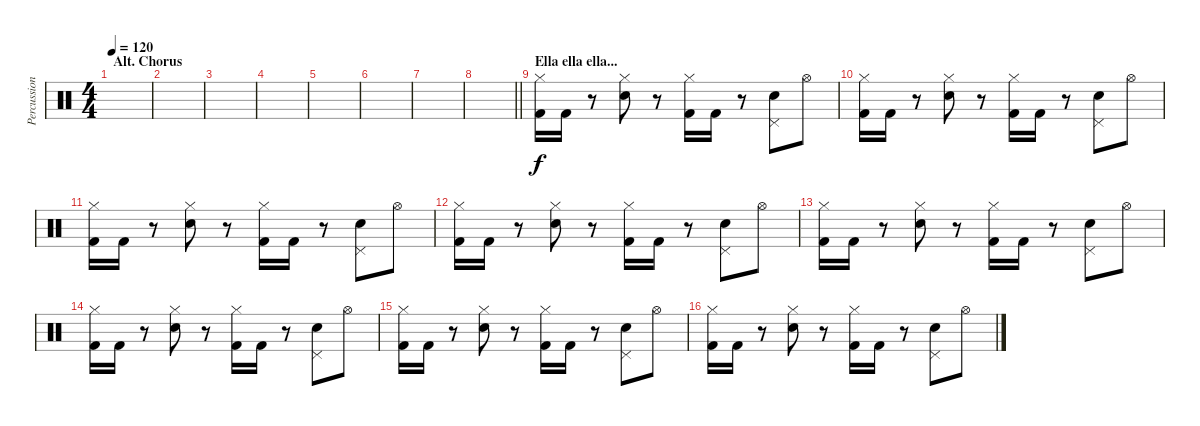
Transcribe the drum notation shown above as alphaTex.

\track ("Percussion" "Percussion") {instrument percussion}
\staff {score}
\articulation defaults
\ts (4 4)
\section ("" "Alt. Chorus")
\tempo 120
\clef neutral
\ks c
|
|
|
|
|
|
|
\barLineRight lightlight
|
\section ("" "Ella ella ella...")
("Hi-Hat (closed)" "Kick (hit) 2").16 "Kick (hit) 2".16 r.8 ("Hi-Hat (closed)" "Electric Snare (hit)").8 r.8 ("Hi-Hat (closed)" "Kick (hit) 2").16 "Kick (hit) 2".16 r.8 ("Pedal Hi-Hat (hit)" "Electric Snare (hit)").8 "Hi-Hat (open)".8 |
("Hi-Hat (closed)" "Kick (hit) 2").16 "Kick (hit) 2".16 r.8 ("Hi-Hat (closed)" "Electric Snare (hit)").8 r.8 ("Hi-Hat (closed)" "Kick (hit) 2").16 "Kick (hit) 2".16 r.8 ("Pedal Hi-Hat (hit)" "Electric Snare (hit)").8 "Hi-Hat (open)".8 |
("Hi-Hat (closed)" "Kick (hit) 2").16 "Kick (hit) 2".16 r.8 ("Hi-Hat (closed)" "Electric Snare (hit)").8 r.8 ("Hi-Hat (closed)" "Kick (hit) 2").16 "Kick (hit) 2".16 r.8 ("Pedal Hi-Hat (hit)" "Electric Snare (hit)").8 "Hi-Hat (open)".8 |
("Hi-Hat (closed)" "Kick (hit) 2").16 "Kick (hit) 2".16 r.8 ("Hi-Hat (closed)" "Electric Snare (hit)").8 r.8 ("Hi-Hat (closed)" "Kick (hit) 2").16 "Kick (hit) 2".16 r.8 ("Pedal Hi-Hat (hit)" "Electric Snare (hit)").8 "Hi-Hat (open)".8 |
("Hi-Hat (closed)" "Kick (hit) 2").16 "Kick (hit) 2".16 r.8 ("Hi-Hat (closed)" "Electric Snare (hit)").8 r.8 ("Hi-Hat (closed)" "Kick (hit) 2").16 "Kick (hit) 2".16 r.8 ("Pedal Hi-Hat (hit)" "Electric Snare (hit)").8 "Hi-Hat (open)".8 |
("Hi-Hat (closed)" "Kick (hit) 2").16 "Kick (hit) 2".16 r.8 ("Hi-Hat (closed)" "Electric Snare (hit)").8 r.8 ("Hi-Hat (closed)" "Kick (hit) 2").16 "Kick (hit) 2".16 r.8 ("Pedal Hi-Hat (hit)" "Electric Snare (hit)").8 "Hi-Hat (open)".8 |
("Hi-Hat (closed)" "Kick (hit) 2").16 "Kick (hit) 2".16 r.8 ("Hi-Hat (closed)" "Electric Snare (hit)").8 r.8 ("Hi-Hat (closed)" "Kick (hit) 2").16 "Kick (hit) 2".16 r.8 ("Pedal Hi-Hat (hit)" "Electric Snare (hit)").8 "Hi-Hat (open)".8 |
("Hi-Hat (closed)" "Kick (hit) 2").16 "Kick (hit) 2".16 r.8 ("Hi-Hat (closed)" "Electric Snare (hit)").8 r.8 ("Hi-Hat (closed)" "Kick (hit) 2").16 "Kick (hit) 2".16 r.8 ("Pedal Hi-Hat (hit)" "Electric Snare (hit)").8 "Hi-Hat (open)".8
